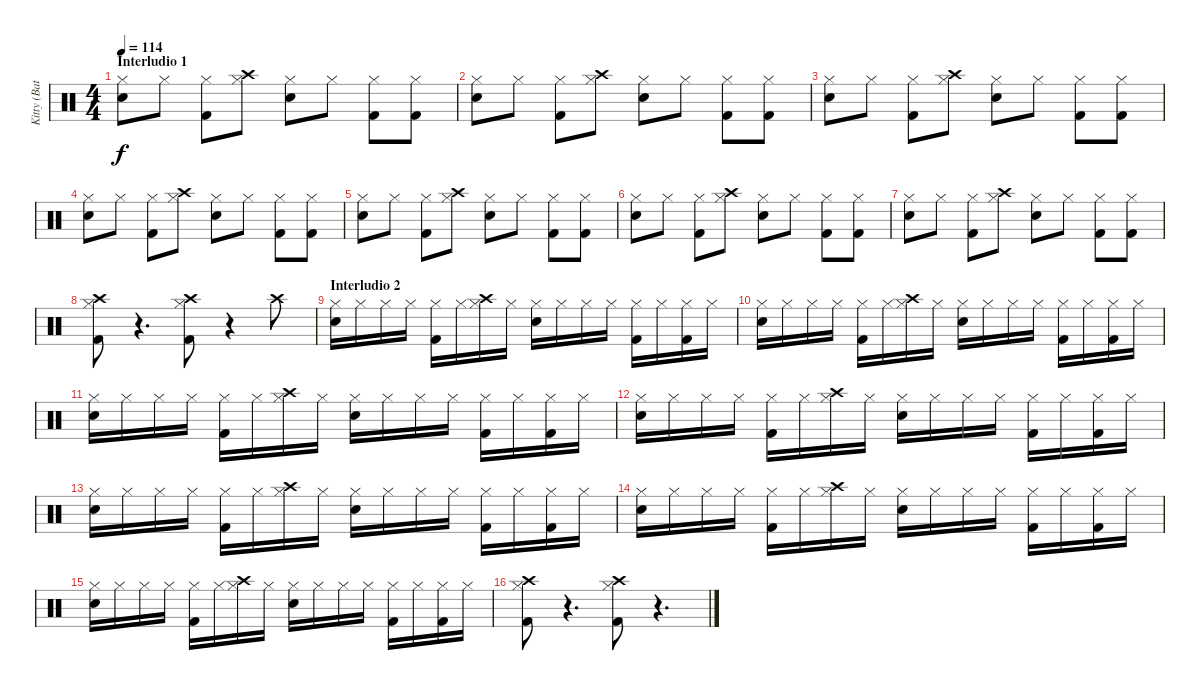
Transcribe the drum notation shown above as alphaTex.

\track ("Kitty (Bataca)" "Kitty (Bat") {instrument percussion}
\staff {score}
\articulation defaults
\ts (4 4)
\section ("" "Interludio 1")
\tempo 114
\clef neutral
\ks c
("Hi-Hat (closed)" "Electric Snare (hit)").8{dy f} "Hi-Hat (closed)".8 ("Hi-Hat (closed)" "Kick (hit) 2").8 ("Crash high (hit)" "Hi-Hat (closed)").8 ("Hi-Hat (closed)" "Electric Snare (hit)").8 "Hi-Hat (closed)".8 ("Hi-Hat (closed)" "Kick (hit) 2").8 ("Hi-Hat (closed)" "Kick (hit) 2").8 |
("Hi-Hat (closed)" "Electric Snare (hit)").8 "Hi-Hat (closed)".8 ("Hi-Hat (closed)" "Kick (hit) 2").8 ("Crash high (hit)" "Hi-Hat (closed)").8 ("Hi-Hat (closed)" "Electric Snare (hit)").8 "Hi-Hat (closed)".8 ("Hi-Hat (closed)" "Kick (hit) 2").8 ("Hi-Hat (closed)" "Kick (hit) 2").8 |
("Hi-Hat (closed)" "Electric Snare (hit)").8 "Hi-Hat (closed)".8 ("Hi-Hat (closed)" "Kick (hit) 2").8 ("Crash high (hit)" "Hi-Hat (closed)").8 ("Hi-Hat (closed)" "Electric Snare (hit)").8 "Hi-Hat (closed)".8 ("Hi-Hat (closed)" "Kick (hit) 2").8 ("Hi-Hat (closed)" "Kick (hit) 2").8 |
("Hi-Hat (closed)" "Electric Snare (hit)").8 "Hi-Hat (closed)".8 ("Hi-Hat (closed)" "Kick (hit) 2").8 ("Crash high (hit)" "Hi-Hat (closed)").8 ("Hi-Hat (closed)" "Electric Snare (hit)").8 "Hi-Hat (closed)".8 ("Hi-Hat (closed)" "Kick (hit) 2").8 ("Hi-Hat (closed)" "Kick (hit) 2").8 |
("Hi-Hat (closed)" "Electric Snare (hit)").8 "Hi-Hat (closed)".8 ("Hi-Hat (closed)" "Kick (hit) 2").8 ("Crash high (hit)" "Hi-Hat (closed)").8 ("Hi-Hat (closed)" "Electric Snare (hit)").8 "Hi-Hat (closed)".8 ("Hi-Hat (closed)" "Kick (hit) 2").8 ("Hi-Hat (closed)" "Kick (hit) 2").8 |
("Hi-Hat (closed)" "Electric Snare (hit)").8 "Hi-Hat (closed)".8 ("Hi-Hat (closed)" "Kick (hit) 2").8 ("Crash high (hit)" "Hi-Hat (closed)").8 ("Hi-Hat (closed)" "Electric Snare (hit)").8 "Hi-Hat (closed)".8 ("Hi-Hat (closed)" "Kick (hit) 2").8 ("Hi-Hat (closed)" "Kick (hit) 2").8 |
("Hi-Hat (closed)" "Electric Snare (hit)").8 "Hi-Hat (closed)".8 ("Hi-Hat (closed)" "Kick (hit) 2").8 ("Crash high (hit)" "Hi-Hat (closed)").8 ("Hi-Hat (closed)" "Electric Snare (hit)").8 "Hi-Hat (closed)".8 ("Hi-Hat (closed)" "Kick (hit) 2").8 ("Hi-Hat (closed)" "Kick (hit) 2").8 |
("Crash high (hit)" "Hi-Hat (closed)" "Kick (hit) 2").8 r.4{d} ("Crash high (hit)" "Hi-Hat (closed)" "Kick (hit) 2").8 r.4 "Crash high (hit)".8 |
\section ("" "Interludio 2")
("Hi-Hat (closed)" "Electric Snare (hit)").16 "Hi-Hat (closed)".16 "Hi-Hat (closed)".16 "Hi-Hat (closed)".16 ("Hi-Hat (closed)" "Kick (hit) 2").16 "Hi-Hat (closed)".16 ("Crash high (hit)" "Hi-Hat (closed)").16 "Hi-Hat (closed)".16 ("Hi-Hat (closed)" "Electric Snare (hit)").16 "Hi-Hat (closed)".16 "Hi-Hat (closed)".16 "Hi-Hat (closed)".16 ("Hi-Hat (closed)" "Kick (hit) 2").16 "Hi-Hat (closed)".16 ("Hi-Hat (closed)" "Kick (hit) 2").16 "Hi-Hat (closed)".16 |
("Hi-Hat (closed)" "Electric Snare (hit)").16 "Hi-Hat (closed)".16 "Hi-Hat (closed)".16 "Hi-Hat (closed)".16 ("Hi-Hat (closed)" "Kick (hit) 2").16 "Hi-Hat (closed)".16 ("Crash high (hit)" "Hi-Hat (closed)").16 "Hi-Hat (closed)".16 ("Hi-Hat (closed)" "Electric Snare (hit)").16 "Hi-Hat (closed)".16 "Hi-Hat (closed)".16 "Hi-Hat (closed)".16 ("Hi-Hat (closed)" "Kick (hit) 2").16 "Hi-Hat (closed)".16 ("Hi-Hat (closed)" "Kick (hit) 2").16 "Hi-Hat (closed)".16 |
("Hi-Hat (closed)" "Electric Snare (hit)").16 "Hi-Hat (closed)".16 "Hi-Hat (closed)".16 "Hi-Hat (closed)".16 ("Hi-Hat (closed)" "Kick (hit) 2").16 "Hi-Hat (closed)".16 ("Crash high (hit)" "Hi-Hat (closed)").16 "Hi-Hat (closed)".16 ("Hi-Hat (closed)" "Electric Snare (hit)").16 "Hi-Hat (closed)".16 "Hi-Hat (closed)".16 "Hi-Hat (closed)".16 ("Hi-Hat (closed)" "Kick (hit) 2").16 "Hi-Hat (closed)".16 ("Hi-Hat (closed)" "Kick (hit) 2").16 "Hi-Hat (closed)".16 |
("Hi-Hat (closed)" "Electric Snare (hit)").16 "Hi-Hat (closed)".16 "Hi-Hat (closed)".16 "Hi-Hat (closed)".16 ("Hi-Hat (closed)" "Kick (hit) 2").16 "Hi-Hat (closed)".16 ("Crash high (hit)" "Hi-Hat (closed)").16 "Hi-Hat (closed)".16 ("Hi-Hat (closed)" "Electric Snare (hit)").16 "Hi-Hat (closed)".16 "Hi-Hat (closed)".16 "Hi-Hat (closed)".16 ("Hi-Hat (closed)" "Kick (hit) 2").16 "Hi-Hat (closed)".16 ("Hi-Hat (closed)" "Kick (hit) 2").16 "Hi-Hat (closed)".16 |
("Hi-Hat (closed)" "Electric Snare (hit)").16 "Hi-Hat (closed)".16 "Hi-Hat (closed)".16 "Hi-Hat (closed)".16 ("Hi-Hat (closed)" "Kick (hit) 2").16 "Hi-Hat (closed)".16 ("Crash high (hit)" "Hi-Hat (closed)").16 "Hi-Hat (closed)".16 ("Hi-Hat (closed)" "Electric Snare (hit)").16 "Hi-Hat (closed)".16 "Hi-Hat (closed)".16 "Hi-Hat (closed)".16 ("Hi-Hat (closed)" "Kick (hit) 2").16 "Hi-Hat (closed)".16 ("Hi-Hat (closed)" "Kick (hit) 2").16 "Hi-Hat (closed)".16 |
("Hi-Hat (closed)" "Electric Snare (hit)").16 "Hi-Hat (closed)".16 "Hi-Hat (closed)".16 "Hi-Hat (closed)".16 ("Hi-Hat (closed)" "Kick (hit) 2").16 "Hi-Hat (closed)".16 ("Crash high (hit)" "Hi-Hat (closed)").16 "Hi-Hat (closed)".16 ("Hi-Hat (closed)" "Electric Snare (hit)").16 "Hi-Hat (closed)".16 "Hi-Hat (closed)".16 "Hi-Hat (closed)".16 ("Hi-Hat (closed)" "Kick (hit) 2").16 "Hi-Hat (closed)".16 ("Hi-Hat (closed)" "Kick (hit) 2").16 "Hi-Hat (closed)".16 |
("Hi-Hat (closed)" "Electric Snare (hit)").16 "Hi-Hat (closed)".16 "Hi-Hat (closed)".16 "Hi-Hat (closed)".16 ("Hi-Hat (closed)" "Kick (hit) 2").16 "Hi-Hat (closed)".16 ("Crash high (hit)" "Hi-Hat (closed)").16 "Hi-Hat (closed)".16 ("Hi-Hat (closed)" "Electric Snare (hit)").16 "Hi-Hat (closed)".16 "Hi-Hat (closed)".16 "Hi-Hat (closed)".16 ("Hi-Hat (closed)" "Kick (hit) 2").16 "Hi-Hat (closed)".16 ("Hi-Hat (closed)" "Kick (hit) 2").16 "Hi-Hat (closed)".16 |
("Crash high (hit)" "Hi-Hat (closed)" "Kick (hit) 2").8 r.4{d} ("Crash high (hit)" "Hi-Hat (closed)" "Kick (hit) 2").8 r.4{d}
